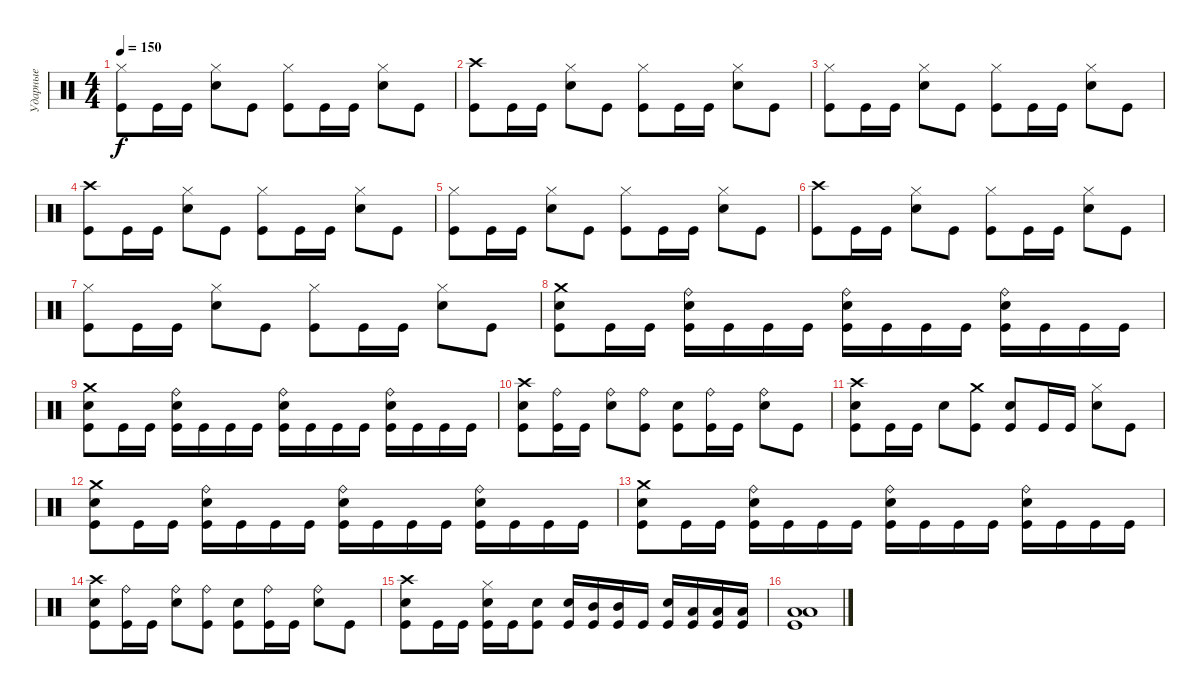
\track ("Ударные" "Ударные") {instrument percussion}
\staff {score}
\articulation defaults
\ts (4 4)
\tempo 150
\clef neutral
\ks c
("Hi-Hat (closed)" "Kick (hit)").8{dy f} "Kick (hit)".16 "Kick (hit)".16 ("Hi-Hat (closed)" "Electric Snare (hit)").8 "Kick (hit)".8 ("Hi-Hat (closed)" "Kick (hit)").8 "Kick (hit)".16 "Kick (hit)".16 ("Hi-Hat (closed)" "Electric Snare (hit)").8 "Kick (hit)".8 |
("Crash high (hit)" "Kick (hit)").8 "Kick (hit)".16 "Kick (hit)".16 ("Hi-Hat (closed)" "Electric Snare (hit)").8 "Kick (hit)".8 ("Hi-Hat (closed)" "Kick (hit)").8 "Kick (hit)".16 "Kick (hit)".16 ("Hi-Hat (closed)" "Electric Snare (hit)").8 "Kick (hit)".8 |
("Hi-Hat (closed)" "Kick (hit)").8 "Kick (hit)".16 "Kick (hit)".16 ("Hi-Hat (closed)" "Electric Snare (hit)").8 "Kick (hit)".8 ("Hi-Hat (closed)" "Kick (hit)").8 "Kick (hit)".16 "Kick (hit)".16 ("Hi-Hat (closed)" "Electric Snare (hit)").8 "Kick (hit)".8 |
("Crash high (hit)" "Kick (hit)").8 "Kick (hit)".16 "Kick (hit)".16 ("Hi-Hat (closed)" "Electric Snare (hit)").8 "Kick (hit)".8 ("Hi-Hat (closed)" "Kick (hit)").8 "Kick (hit)".16 "Kick (hit)".16 ("Hi-Hat (closed)" "Electric Snare (hit)").8 "Kick (hit)".8 |
("Hi-Hat (closed)" "Kick (hit)").8 "Kick (hit)".16 "Kick (hit)".16 ("Hi-Hat (closed)" "Electric Snare (hit)").8 "Kick (hit)".8 ("Hi-Hat (closed)" "Kick (hit)").8 "Kick (hit)".16 "Kick (hit)".16 ("Hi-Hat (closed)" "Electric Snare (hit)").8 "Kick (hit)".8 |
("Crash high (hit)" "Kick (hit)").8 "Kick (hit)".16 "Kick (hit)".16 ("Hi-Hat (closed)" "Electric Snare (hit)").8 "Kick (hit)".8 ("Hi-Hat (closed)" "Kick (hit)").8 "Kick (hit)".16 "Kick (hit)".16 ("Hi-Hat (closed)" "Electric Snare (hit)").8 "Kick (hit)".8 |
("Hi-Hat (closed)" "Kick (hit)").8 "Kick (hit)".16 "Kick (hit)".16 ("Hi-Hat (closed)" "Electric Snare (hit)").8 "Kick (hit)".8 ("Hi-Hat (closed)" "Kick (hit)").8 "Kick (hit)".16 "Kick (hit)".16 ("Hi-Hat (closed)" "Electric Snare (hit)").8 "Kick (hit)".8 |
("Crash medium (hit)" "Electric Snare (hit)" "Kick (hit)").8 "Kick (hit)".16 "Kick (hit)".16 ("Ride (bell)" "Electric Snare (hit)" "Kick (hit)").16 "Kick (hit)".16 "Kick (hit)".16 "Kick (hit)".16 ("Ride (bell)" "Electric Snare (hit)" "Kick (hit)").16 "Kick (hit)".16 "Kick (hit)".16 "Kick (hit)".16 ("Ride (bell)" "Electric Snare (hit)" "Kick (hit)").16 "Kick (hit)".16 "Kick (hit)".16 "Kick (hit)".16 |
("Crash medium (hit)" "Electric Snare (hit)" "Kick (hit)").8 "Kick (hit)".16 "Kick (hit)".16 ("Ride (bell)" "Electric Snare (hit)" "Kick (hit)").16 "Kick (hit)".16 "Kick (hit)".16 "Kick (hit)".16 ("Ride (bell)" "Electric Snare (hit)" "Kick (hit)").16 "Kick (hit)".16 "Kick (hit)".16 "Kick (hit)".16 ("Ride (bell)" "Electric Snare (hit)" "Kick (hit)").16 "Kick (hit)".16 "Kick (hit)".16 "Kick (hit)".16 |
("Crash high (hit)" "Electric Snare (hit)" "Kick (hit)").8 ("Ride (bell)" "Kick (hit)").16 "Kick (hit)".16 ("Ride (bell)" "Electric Snare (hit)").8 ("Ride (bell)" "Kick (hit)").8 ("Electric Snare (hit)" "Kick (hit)").8 ("Ride (bell)" "Kick (hit)").16 "Kick (hit)".16 ("Ride (bell)" "Electric Snare (hit)").8 "Kick (hit)".8 |
("Crash high (hit)" "Electric Snare (hit)" "Kick (hit)").8 "Kick (hit)".16 "Kick (hit)".16 "Electric Snare (hit)".8 ("Crash medium (hit)" "Kick (hit)").8 ("Electric Snare (hit)" "Kick (hit)").8 "Kick (hit)".16 "Kick (hit)".16 ("Hi-Hat (closed)" "Electric Snare (hit)").8 "Kick (hit)".8 |
("Crash medium (hit)" "Electric Snare (hit)" "Kick (hit)").8 "Kick (hit)".16 "Kick (hit)".16 ("Ride (bell)" "Electric Snare (hit)" "Kick (hit)").16 "Kick (hit)".16 "Kick (hit)".16 "Kick (hit)".16 ("Ride (bell)" "Electric Snare (hit)" "Kick (hit)").16 "Kick (hit)".16 "Kick (hit)".16 "Kick (hit)".16 ("Ride (bell)" "Electric Snare (hit)" "Kick (hit)").16 "Kick (hit)".16 "Kick (hit)".16 "Kick (hit)".16 |
("Crash medium (hit)" "Electric Snare (hit)" "Kick (hit)").8 "Kick (hit)".16 "Kick (hit)".16 ("Ride (bell)" "Electric Snare (hit)" "Kick (hit)").16 "Kick (hit)".16 "Kick (hit)".16 "Kick (hit)".16 ("Ride (bell)" "Electric Snare (hit)" "Kick (hit)").16 "Kick (hit)".16 "Kick (hit)".16 "Kick (hit)".16 ("Ride (bell)" "Electric Snare (hit)" "Kick (hit)").16 "Kick (hit)".16 "Kick (hit)".16 "Kick (hit)".16 |
("Crash high (hit)" "Electric Snare (hit)" "Kick (hit)").8 ("Ride (bell)" "Kick (hit)").16 "Kick (hit)".16 ("Ride (bell)" "Electric Snare (hit)").8 ("Ride (bell)" "Kick (hit)").8 ("Electric Snare (hit)" "Kick (hit)").8 ("Ride (bell)" "Kick (hit)").16 "Kick (hit)".16 ("Ride (bell)" "Electric Snare (hit)").8 "Kick (hit)".8 |
("Crash high (hit)" "Electric Snare (hit)" "Kick (hit)").8 "Kick (hit)".16 "Kick (hit)".16 ("Hi-Hat (closed)" "Electric Snare (hit)" "Kick (hit)").16 "Kick (hit)".16 ("Electric Snare (hit)" "Kick (hit)").8 ("Electric Snare (hit)" "Kick (hit)").16 ("Mid Tom (hit)" "Kick (hit)").16 ("Mid Tom (hit)" "Kick (hit)").16 "Kick (hit)".16 ("Electric Snare (hit)" "Kick (hit)").16 ("Low Tom (hit)" "Kick (hit)").16 ("Low Tom (hit)" "Kick (hit)").16 ("Low Tom (hit)" "Kick (hit)").16 |
("Low Tom (hit)" "Low Tom (hit)" "Kick (hit)").1
